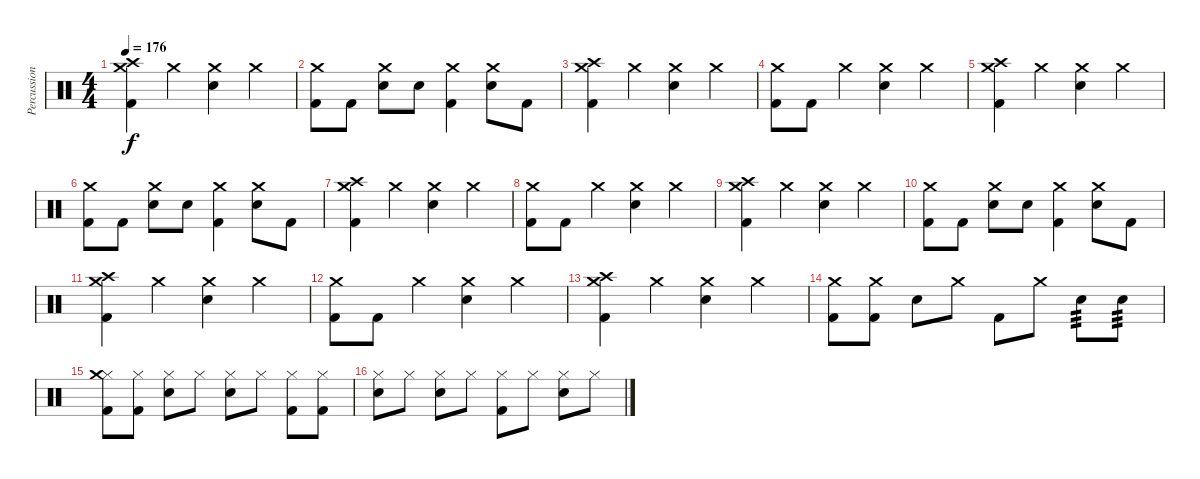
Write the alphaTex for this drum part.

\track ("Percussion" "Percussion") {instrument percussion}
\staff {score}
\articulation defaults
\ts (4 4)
\tempo 176
\clef neutral
\ks c
("Crash medium (hit)" "Crash high (hit)" "Kick (hit) 2").4{dy f} "Crash medium (hit)".4 ("Crash medium (hit)" "Snare (hit) 2").4 "Crash medium (hit)".4 |
("Crash medium (hit)" "Kick (hit) 2").8 "Kick (hit) 2".8 ("Crash medium (hit)" "Snare (hit) 2").8 "Snare (hit) 2".8 ("Crash medium (hit)" "Kick (hit) 2").4 ("Crash medium (hit)" "Snare (hit) 2").8 "Kick (hit) 2".8 |
("Crash medium (hit)" "Crash high (hit)" "Kick (hit) 2").4 "Crash medium (hit)".4 ("Crash medium (hit)" "Snare (hit) 2").4 "Crash medium (hit)".4 |
("Crash medium (hit)" "Kick (hit) 2").8 "Kick (hit) 2".8 "Crash medium (hit)".4 ("Crash medium (hit)" "Snare (hit) 2").4 "Crash medium (hit)".4 |
("Crash medium (hit)" "Crash high (hit)" "Kick (hit) 2").4 "Crash medium (hit)".4 ("Crash medium (hit)" "Snare (hit) 2").4 "Crash medium (hit)".4 |
("Crash medium (hit)" "Kick (hit) 2").8 "Kick (hit) 2".8 ("Crash medium (hit)" "Snare (hit) 2").8 "Snare (hit) 2".8 ("Crash medium (hit)" "Kick (hit) 2").4 ("Crash medium (hit)" "Snare (hit) 2").8 "Kick (hit) 2".8 |
("Crash medium (hit)" "Crash high (hit)" "Kick (hit) 2").4 "Crash medium (hit)".4 ("Crash medium (hit)" "Snare (hit) 2").4 "Crash medium (hit)".4 |
("Crash medium (hit)" "Kick (hit) 2").8 "Kick (hit) 2".8 "Crash medium (hit)".4 ("Crash medium (hit)" "Snare (hit) 2").4 "Crash medium (hit)".4 |
("Crash medium (hit)" "Crash high (hit)" "Kick (hit) 2").4 "Crash medium (hit)".4 ("Crash medium (hit)" "Snare (hit) 2").4 "Crash medium (hit)".4 |
("Crash medium (hit)" "Kick (hit) 2").8 "Kick (hit) 2".8 ("Crash medium (hit)" "Snare (hit) 2").8 "Snare (hit) 2".8 ("Crash medium (hit)" "Kick (hit) 2").4 ("Crash medium (hit)" "Snare (hit) 2").8 "Kick (hit) 2".8 |
("Crash medium (hit)" "Crash high (hit)" "Kick (hit) 2").4 "Crash medium (hit)".4 ("Crash medium (hit)" "Snare (hit) 2").4 "Crash medium (hit)".4 |
("Crash medium (hit)" "Kick (hit) 2").8 "Kick (hit) 2".8 "Crash medium (hit)".4 ("Crash medium (hit)" "Snare (hit) 2").4 "Crash medium (hit)".4 |
("Crash medium (hit)" "Crash high (hit)" "Kick (hit) 2").4 "Crash medium (hit)".4 ("Crash medium (hit)" "Snare (hit) 2").4 "Crash medium (hit)".4 |
("Crash medium (hit)" "Kick (hit) 2").8 ("Crash medium (hit)" "Kick (hit) 2").8 "Snare (hit) 2".8 "Crash medium (hit)".8 "Kick (hit) 2".8 "Crash medium (hit)".8 "Snare (hit) 2".8{tp 3} "Snare (hit) 2".8{tp 3} |
("Hi-Hat (closed)" "Crash medium (hit)" "Kick (hit) 2").8{volume 9} ("Hi-Hat (closed)" "Kick (hit) 2").8 ("Hi-Hat (closed)" "Snare (hit) 2").8 "Hi-Hat (closed)".8 ("Hi-Hat (closed)" "Snare (hit) 2").8 "Hi-Hat (closed)".8 ("Hi-Hat (closed)" "Kick (hit) 2").8 ("Hi-Hat (closed)" "Kick (hit) 2").8 |
("Hi-Hat (closed)" "Snare (hit) 2").8 "Hi-Hat (closed)".8 ("Hi-Hat (closed)" "Snare (hit) 2").8 "Hi-Hat (closed)".8 ("Hi-Hat (closed)" "Kick (hit) 2").8 "Hi-Hat (closed)".8 ("Hi-Hat (closed)" "Snare (hit) 2").8 "Hi-Hat (closed)".8
